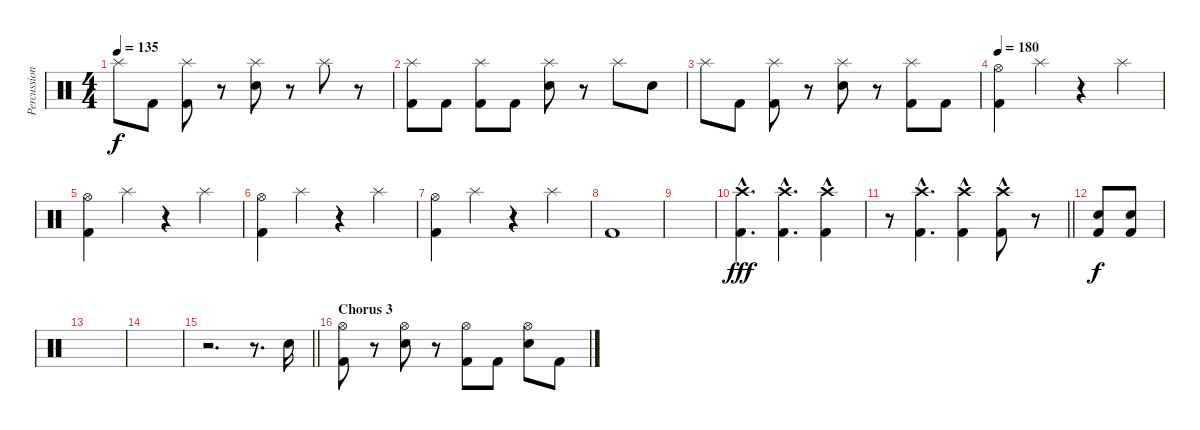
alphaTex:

\track ("Percussion" "Percussion") {instrument percussion}
\staff {score}
\articulation defaults
\ts (4 4)
\tempo 135
\clef neutral
\ks c "Splash (hit)".8{dy f} "Kick (hit) 2".8
("Splash (hit)" "Kick (hit) 2").8 r.8 ("Splash (hit)" "Electric Snare (hit)").8 r.8 "Splash (hit)".8 r.8 |
("Splash (hit)" "Kick (hit) 2").8 "Kick (hit) 2".8 ("Splash (hit)" "Kick (hit) 2").8 "Kick (hit) 2".8 ("Splash (hit)" "Electric Snare (hit)").8 r.8 "Splash (hit)".8 "Electric Snare (hit)".8 |
"Splash (hit)".8 "Kick (hit) 2".8 ("Splash (hit)" "Kick (hit) 2").8 r.8 ("Splash (hit)" "Electric Snare (hit)").8 r.8 ("Splash (hit)" "Kick (hit) 2").8 "Kick (hit) 2".8 |
\tempo 180
("Hi-Hat (open)" "Kick (hit) 2").4 "Splash (hit)".4 r.4 "Splash (hit)".4 |
("Hi-Hat (open)" "Kick (hit) 2").4 "Splash (hit)".4 r.4 "Splash (hit)".4 |
("Hi-Hat (open)" "Kick (hit) 2").4 "Splash (hit)".4 r.4 "Splash (hit)".4 |
("Hi-Hat (open)" "Kick (hit) 2").4 "Splash (hit)".4 r.4 "Splash (hit)".4 |
"Kick (hit) 2".1 |
|
("Crash high (hit)"{hac} "Kick (hit) 2"{hac}).4{d dy fff} ("Crash high (hit)"{hac} "Kick (hit) 2"{hac}).4{d} ("Crash high (hit)"{hac} "Kick (hit) 2"{hac}).4 |
\barLineRight lightlight
r.8 ("Crash high (hit)"{hac} "Kick (hit) 2"{hac}).4{d} ("Crash high (hit)"{hac} "Kick (hit) 2"{hac}).4 ("Crash high (hit)"{hac} "Kick (hit) 2"{hac}).8 r.8 |
("Electric Snare (hit)" "Kick (hit) 2").8{dy f} ("Electric Snare (hit)" "Kick (hit) 2").8 |
|
|
\barLineRight lightlight
r.2{d} r.8{d} "Electric Snare (hit)".16 |
\section ("" "Chorus 3")
("Hi-Hat (open)" "Kick (hit) 2").8 r.8 ("Hi-Hat (open)" "Electric Snare (hit)").8 r.8 ("Hi-Hat (open)" "Kick (hit) 2").8 "Kick (hit) 2".8 ("Hi-Hat (open)" "Electric Snare (hit)").8 "Kick (hit) 2".8
